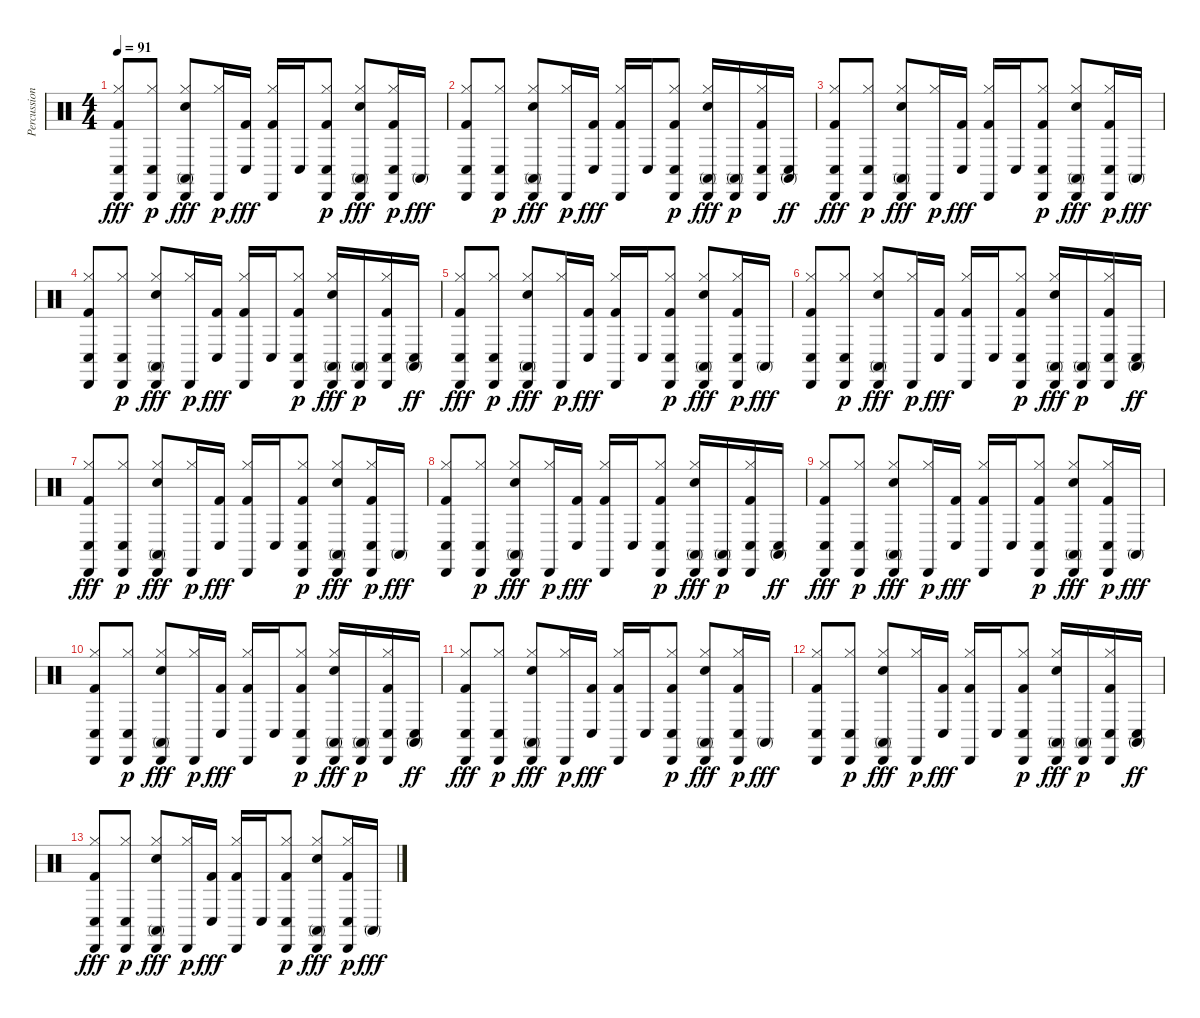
\track ("Percussion" "Percussion") {instrument percussion}
\staff {score}
\articulation defaults
\ts (4 4)
\tempo 91
\clef neutral
\ks c
("Kick (hit) 2" "Hi-Hat (closed)" "Conga low (hit)" "Cabasa (hit)").8{dy fff} ("Hi-Hat (closed)" "Conga low (hit)" "Cabasa (hit)").8{dy p} ("Snare (hit) 2" "Hi-Hat (closed)" "Conga high (mute)" "Cabasa (hit)").8{dy fff} ("Hi-Hat (closed)" "Cabasa (hit)").16{dy p} ("Kick (hit) 2" "Conga low (hit)").16{dy fff} ("Kick (hit) 2" "Hi-Hat (closed)" "Cabasa (hit)").16 "Conga low (hit)".16 ("Kick (hit) 2" "Hi-Hat (closed)" "Conga low (hit)" "Cabasa (hit)").8{dy p} ("Snare (hit) 2" "Hi-Hat (closed)" "Conga high (mute)" "Cabasa (hit)").8{dy fff} ("Kick (hit) 2" "Hi-Hat (closed)" "Conga low (hit)" "Cabasa (hit)").16{dy p} "Conga high (mute)".16{dy fff} |
("Kick (hit) 2" "Hi-Hat (closed)" "Conga low (hit)" "Cabasa (hit)").8 ("Hi-Hat (closed)" "Conga low (hit)" "Cabasa (hit)").8{dy p} ("Snare (hit) 2" "Hi-Hat (closed)" "Conga high (mute)" "Cabasa (hit)").8{dy fff} ("Hi-Hat (closed)" "Cabasa (hit)").16{dy p} ("Kick (hit) 2" "Conga low (hit)").16{dy fff} ("Kick (hit) 2" "Hi-Hat (closed)" "Cabasa (hit)").16 "Conga low (hit)".16 ("Kick (hit) 2" "Hi-Hat (closed)" "Conga low (hit)" "Cabasa (hit)").8{dy p} ("Snare (hit) 2" "Hi-Hat (closed)" "Conga high (mute)" "Cabasa (hit)").16{dy fff} ("Conga high (mute)" "Cabasa (hit)").16{dy p} ("Kick (hit) 2" "Hi-Hat (closed)" "Conga low (hit)" "Cabasa (hit)").16 ("Conga high (mute)" "Conga low (hit)").16{dy ff} |
("Kick (hit) 2" "Hi-Hat (closed)" "Conga low (hit)" "Cabasa (hit)").8{dy fff} ("Hi-Hat (closed)" "Conga low (hit)" "Cabasa (hit)").8{dy p} ("Snare (hit) 2" "Hi-Hat (closed)" "Conga high (mute)" "Cabasa (hit)").8{dy fff} ("Hi-Hat (closed)" "Cabasa (hit)").16{dy p} ("Kick (hit) 2" "Conga low (hit)").16{dy fff} ("Kick (hit) 2" "Hi-Hat (closed)" "Cabasa (hit)").16 "Conga low (hit)".16 ("Kick (hit) 2" "Hi-Hat (closed)" "Conga low (hit)" "Cabasa (hit)").8{dy p} ("Snare (hit) 2" "Hi-Hat (closed)" "Conga high (mute)" "Cabasa (hit)").8{dy fff} ("Kick (hit) 2" "Hi-Hat (closed)" "Conga low (hit)" "Cabasa (hit)").16{dy p} "Conga high (mute)".16{dy fff} |
("Kick (hit) 2" "Hi-Hat (closed)" "Conga low (hit)" "Cabasa (hit)").8 ("Hi-Hat (closed)" "Conga low (hit)" "Cabasa (hit)").8{dy p} ("Snare (hit) 2" "Hi-Hat (closed)" "Conga high (mute)" "Cabasa (hit)").8{dy fff} ("Hi-Hat (closed)" "Cabasa (hit)").16{dy p} ("Kick (hit) 2" "Conga low (hit)").16{dy fff} ("Kick (hit) 2" "Hi-Hat (closed)" "Cabasa (hit)").16 "Conga low (hit)".16 ("Kick (hit) 2" "Hi-Hat (closed)" "Conga low (hit)" "Cabasa (hit)").8{dy p} ("Snare (hit) 2" "Hi-Hat (closed)" "Conga high (mute)" "Cabasa (hit)").16{dy fff} ("Conga high (mute)" "Cabasa (hit)").16{dy p} ("Kick (hit) 2" "Hi-Hat (closed)" "Conga low (hit)" "Cabasa (hit)").16 ("Conga high (mute)" "Conga low (hit)").16{dy ff} |
("Kick (hit) 2" "Hi-Hat (closed)" "Conga low (hit)" "Cabasa (hit)").8{dy fff} ("Hi-Hat (closed)" "Conga low (hit)" "Cabasa (hit)").8{dy p} ("Snare (hit) 2" "Hi-Hat (closed)" "Conga high (mute)" "Cabasa (hit)").8{dy fff} ("Hi-Hat (closed)" "Cabasa (hit)").16{dy p} ("Kick (hit) 2" "Conga low (hit)").16{dy fff} ("Kick (hit) 2" "Hi-Hat (closed)" "Cabasa (hit)").16 "Conga low (hit)".16 ("Kick (hit) 2" "Hi-Hat (closed)" "Conga low (hit)" "Cabasa (hit)").8{dy p} ("Snare (hit) 2" "Hi-Hat (closed)" "Conga high (mute)" "Cabasa (hit)").8{dy fff} ("Kick (hit) 2" "Hi-Hat (closed)" "Conga low (hit)" "Cabasa (hit)").16{dy p} "Conga high (mute)".16{dy fff} |
("Kick (hit) 2" "Hi-Hat (closed)" "Conga low (hit)" "Cabasa (hit)").8 ("Hi-Hat (closed)" "Conga low (hit)" "Cabasa (hit)").8{dy p} ("Snare (hit) 2" "Hi-Hat (closed)" "Conga high (mute)" "Cabasa (hit)").8{dy fff} ("Hi-Hat (closed)" "Cabasa (hit)").16{dy p} ("Kick (hit) 2" "Conga low (hit)").16{dy fff} ("Kick (hit) 2" "Hi-Hat (closed)" "Cabasa (hit)").16 "Conga low (hit)".16 ("Kick (hit) 2" "Hi-Hat (closed)" "Conga low (hit)" "Cabasa (hit)").8{dy p} ("Snare (hit) 2" "Hi-Hat (closed)" "Conga high (mute)" "Cabasa (hit)").16{dy fff} ("Conga high (mute)" "Cabasa (hit)").16{dy p} ("Kick (hit) 2" "Hi-Hat (closed)" "Conga low (hit)" "Cabasa (hit)").16 ("Conga high (mute)" "Conga low (hit)").16{dy ff} |
("Kick (hit) 2" "Hi-Hat (closed)" "Conga low (hit)" "Cabasa (hit)").8{dy fff} ("Hi-Hat (closed)" "Conga low (hit)" "Cabasa (hit)").8{dy p} ("Snare (hit) 2" "Hi-Hat (closed)" "Conga high (mute)" "Cabasa (hit)").8{dy fff} ("Hi-Hat (closed)" "Cabasa (hit)").16{dy p} ("Kick (hit) 2" "Conga low (hit)").16{dy fff} ("Kick (hit) 2" "Hi-Hat (closed)" "Cabasa (hit)").16 "Conga low (hit)".16 ("Kick (hit) 2" "Hi-Hat (closed)" "Conga low (hit)" "Cabasa (hit)").8{dy p} ("Snare (hit) 2" "Hi-Hat (closed)" "Conga high (mute)" "Cabasa (hit)").8{dy fff} ("Kick (hit) 2" "Hi-Hat (closed)" "Conga low (hit)" "Cabasa (hit)").16{dy p} "Conga high (mute)".16{dy fff} |
("Kick (hit) 2" "Hi-Hat (closed)" "Conga low (hit)" "Cabasa (hit)").8 ("Hi-Hat (closed)" "Conga low (hit)" "Cabasa (hit)").8{dy p} ("Snare (hit) 2" "Hi-Hat (closed)" "Conga high (mute)" "Cabasa (hit)").8{dy fff} ("Hi-Hat (closed)" "Cabasa (hit)").16{dy p} ("Kick (hit) 2" "Conga low (hit)").16{dy fff} ("Kick (hit) 2" "Hi-Hat (closed)" "Cabasa (hit)").16 "Conga low (hit)".16 ("Kick (hit) 2" "Hi-Hat (closed)" "Conga low (hit)" "Cabasa (hit)").8{dy p} ("Snare (hit) 2" "Hi-Hat (closed)" "Conga high (mute)" "Cabasa (hit)").16{dy fff} ("Conga high (mute)" "Cabasa (hit)").16{dy p} ("Kick (hit) 2" "Hi-Hat (closed)" "Conga low (hit)" "Cabasa (hit)").16 ("Conga high (mute)" "Conga low (hit)").16{dy ff} |
("Kick (hit) 2" "Hi-Hat (closed)" "Conga low (hit)" "Cabasa (hit)").8{dy fff} ("Hi-Hat (closed)" "Conga low (hit)" "Cabasa (hit)").8{dy p} ("Snare (hit) 2" "Hi-Hat (closed)" "Conga high (mute)" "Cabasa (hit)").8{dy fff} ("Hi-Hat (closed)" "Cabasa (hit)").16{dy p} ("Kick (hit) 2" "Conga low (hit)").16{dy fff} ("Kick (hit) 2" "Hi-Hat (closed)" "Cabasa (hit)").16 "Conga low (hit)".16 ("Kick (hit) 2" "Hi-Hat (closed)" "Conga low (hit)" "Cabasa (hit)").8{dy p} ("Snare (hit) 2" "Hi-Hat (closed)" "Conga high (mute)" "Cabasa (hit)").8{dy fff} ("Kick (hit) 2" "Hi-Hat (closed)" "Conga low (hit)" "Cabasa (hit)").16{dy p} "Conga high (mute)".16{dy fff} |
("Kick (hit) 2" "Hi-Hat (closed)" "Conga low (hit)" "Cabasa (hit)").8 ("Hi-Hat (closed)" "Conga low (hit)" "Cabasa (hit)").8{dy p} ("Snare (hit) 2" "Hi-Hat (closed)" "Conga high (mute)" "Cabasa (hit)").8{dy fff} ("Hi-Hat (closed)" "Cabasa (hit)").16{dy p} ("Kick (hit) 2" "Conga low (hit)").16{dy fff} ("Kick (hit) 2" "Hi-Hat (closed)" "Cabasa (hit)").16 "Conga low (hit)".16 ("Kick (hit) 2" "Hi-Hat (closed)" "Conga low (hit)" "Cabasa (hit)").8{dy p} ("Snare (hit) 2" "Hi-Hat (closed)" "Conga high (mute)" "Cabasa (hit)").16{dy fff} ("Conga high (mute)" "Cabasa (hit)").16{dy p} ("Kick (hit) 2" "Hi-Hat (closed)" "Conga low (hit)" "Cabasa (hit)").16 ("Conga high (mute)" "Conga low (hit)").16{dy ff} |
("Kick (hit) 2" "Hi-Hat (closed)" "Conga low (hit)" "Cabasa (hit)").8{dy fff} ("Hi-Hat (closed)" "Conga low (hit)" "Cabasa (hit)").8{dy p} ("Snare (hit) 2" "Hi-Hat (closed)" "Conga high (mute)" "Cabasa (hit)").8{dy fff} ("Hi-Hat (closed)" "Cabasa (hit)").16{dy p} ("Kick (hit) 2" "Conga low (hit)").16{dy fff} ("Kick (hit) 2" "Hi-Hat (closed)" "Cabasa (hit)").16 "Conga low (hit)".16 ("Kick (hit) 2" "Hi-Hat (closed)" "Conga low (hit)" "Cabasa (hit)").8{dy p} ("Snare (hit) 2" "Hi-Hat (closed)" "Conga high (mute)" "Cabasa (hit)").8{dy fff} ("Kick (hit) 2" "Hi-Hat (closed)" "Conga low (hit)" "Cabasa (hit)").16{dy p} "Conga high (mute)".16{dy fff} |
("Kick (hit) 2" "Hi-Hat (closed)" "Conga low (hit)" "Cabasa (hit)").8 ("Hi-Hat (closed)" "Conga low (hit)" "Cabasa (hit)").8{dy p} ("Snare (hit) 2" "Hi-Hat (closed)" "Conga high (mute)" "Cabasa (hit)").8{dy fff} ("Hi-Hat (closed)" "Cabasa (hit)").16{dy p} ("Kick (hit) 2" "Conga low (hit)").16{dy fff} ("Kick (hit) 2" "Hi-Hat (closed)" "Cabasa (hit)").16 "Conga low (hit)".16 ("Kick (hit) 2" "Hi-Hat (closed)" "Conga low (hit)" "Cabasa (hit)").8{dy p} ("Snare (hit) 2" "Hi-Hat (closed)" "Conga high (mute)" "Cabasa (hit)").16{dy fff} ("Conga high (mute)" "Cabasa (hit)").16{dy p} ("Kick (hit) 2" "Hi-Hat (closed)" "Conga low (hit)" "Cabasa (hit)").16 ("Conga high (mute)" "Conga low (hit)").16{dy ff} |
("Kick (hit) 2" "Hi-Hat (closed)" "Conga low (hit)" "Cabasa (hit)").8{dy fff} ("Hi-Hat (closed)" "Conga low (hit)" "Cabasa (hit)").8{dy p} ("Snare (hit) 2" "Hi-Hat (closed)" "Conga high (mute)" "Cabasa (hit)").8{dy fff} ("Hi-Hat (closed)" "Cabasa (hit)").16{dy p} ("Kick (hit) 2" "Conga low (hit)").16{dy fff} ("Kick (hit) 2" "Hi-Hat (closed)" "Cabasa (hit)").16 "Conga low (hit)".16 ("Kick (hit) 2" "Hi-Hat (closed)" "Conga low (hit)" "Cabasa (hit)").8{dy p} ("Snare (hit) 2" "Hi-Hat (closed)" "Conga high (mute)" "Cabasa (hit)").8{dy fff} ("Kick (hit) 2" "Hi-Hat (closed)" "Conga low (hit)" "Cabasa (hit)").16{dy p} "Conga high (mute)".16{dy fff}
